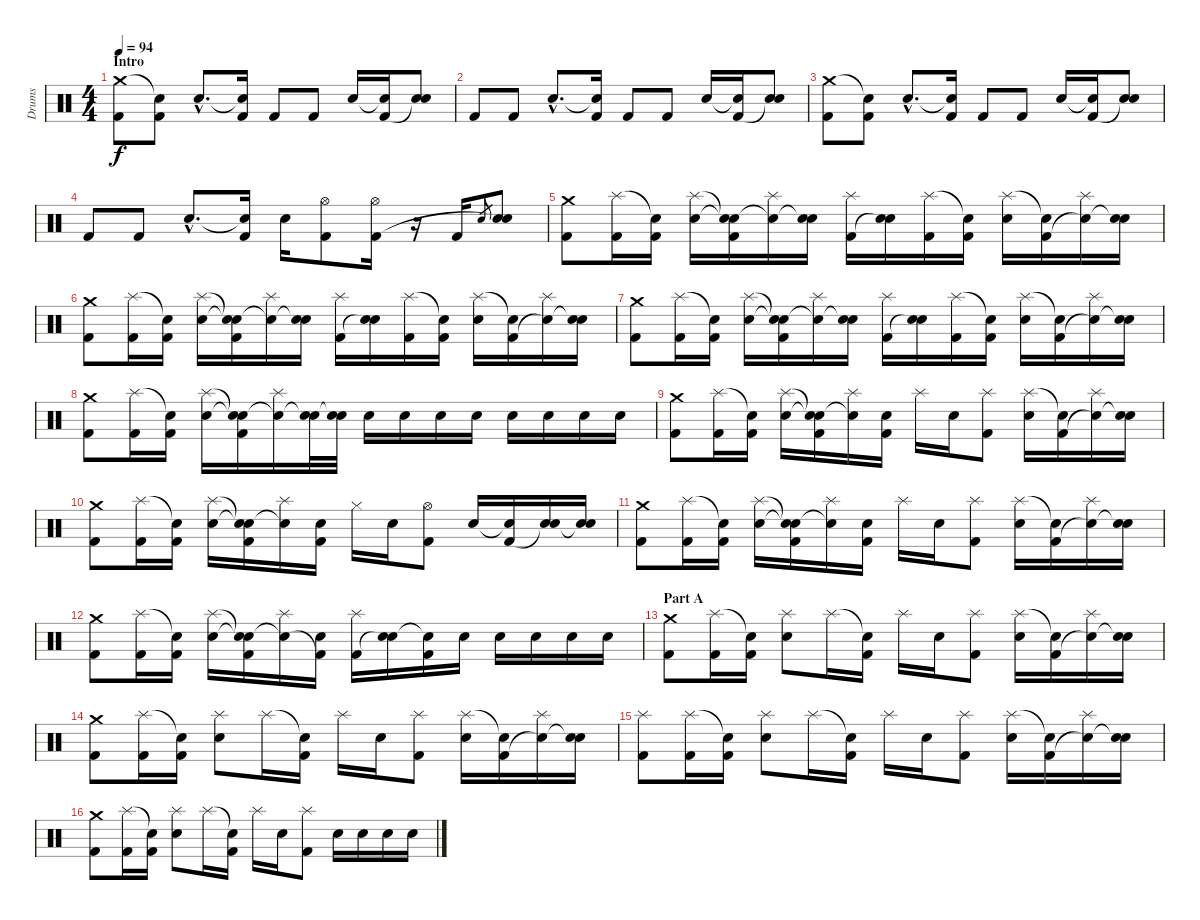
\track ("Drums" "Drums") {instrument percussion}
\staff {score}
\articulation defaults
\ts (4 4)
\section ("" "Intro")
\tempo 94
\clef neutral
\ks c
("Crash medium (hit)" "Kick (hit) 2").8{dy f} ("Snare (hit)"{t} "Kick (hit) 2").8 "Electric Snare (hit)"{hac}.8{d} ("Snare (hit)"{t} "Kick (hit) 2").16 "Kick (hit) 2".8 "Kick (hit) 2".8 "Electric Snare (hit)".16 ("Snare (hit)"{t} "Kick (hit) 2").16 ("Electric Snare (hit)" "Snare (hit)"{t}).8 |
"Kick (hit) 2".8 "Kick (hit) 2".8 "Electric Snare (hit)"{hac}.8{d} ("Snare (hit)"{t} "Kick (hit) 2").16 "Kick (hit) 2".8 "Kick (hit) 2".8 "Electric Snare (hit)".16 ("Snare (hit)"{t} "Kick (hit) 2").16 ("Electric Snare (hit)" "Snare (hit)"{t}).8 |
("Crash medium (hit)" "Kick (hit) 2").8 ("Snare (hit)"{t} "Kick (hit) 2").8 "Electric Snare (hit)"{hac}.8{d} ("Snare (hit)"{t} "Kick (hit) 2").16 "Kick (hit) 2".8 "Kick (hit) 2".8 "Electric Snare (hit)".16 ("Snare (hit)"{t} "Kick (hit) 2").16 ("Electric Snare (hit)" "Snare (hit)"{t}).8 |
"Kick (hit) 2".8 "Kick (hit) 2".8 "Electric Snare (hit)"{hac}.8{d} ("Snare (hit)"{t} "Kick (hit) 2").16 "Electric Snare (hit)".16 ("Hi-Hat (open)" "Kick (hit) 2").8 ("Hi-Hat (open)" "Kick (hit) 2").16 r.16 "Kick (hit) 2".16 "Electric Snare (hit)".8{gr} ("Electric Snare (hit)" "Snare (hit)"{t}).8 |
("Crash medium (hit)" "Kick (hit) 2").8 ("Splash (hit)" "Kick (hit) 2").16 ("Snare (hit)"{t} "Kick (hit) 2").16 ("Splash (hit)" "Electric Snare (hit)").16 ("Snare (hit)"{t} "Snare (hit)"{t} "Kick (hit) 2").16 ("Splash (hit)" "Snare (hit)"{t}).16 ("Electric Snare (hit)" "Snare (hit)"{t}).16 ("Splash (hit)" "Kick (hit) 2").16 ("Electric Snare (hit)" "Snare (hit)"{t}).16 ("Splash (hit)" "Kick (hit) 2").16 ("Snare (hit)"{t} "Kick (hit) 2").16 ("Splash (hit)" "Electric Snare (hit)").16 ("Snare (hit)"{t} "Kick (hit) 2").16 ("Splash (hit)" "Snare (hit)"{t}).16 ("Electric Snare (hit)" "Snare (hit)"{t}).16 |
("Crash medium (hit)" "Kick (hit) 2").8 ("Splash (hit)" "Kick (hit) 2").16 ("Snare (hit)"{t} "Kick (hit) 2").16 ("Splash (hit)" "Electric Snare (hit)").16 ("Snare (hit)"{t} "Snare (hit)"{t} "Kick (hit) 2").16 ("Splash (hit)" "Snare (hit)"{t}).16 ("Electric Snare (hit)" "Snare (hit)"{t}).16 ("Splash (hit)" "Kick (hit) 2").16 ("Electric Snare (hit)" "Snare (hit)"{t}).16 ("Splash (hit)" "Kick (hit) 2").16 ("Snare (hit)"{t} "Kick (hit) 2").16 ("Splash (hit)" "Electric Snare (hit)").16 ("Snare (hit)"{t} "Kick (hit) 2").16 ("Splash (hit)" "Snare (hit)"{t}).16 ("Electric Snare (hit)" "Snare (hit)"{t}).16 |
("Crash medium (hit)" "Kick (hit) 2").8 ("Splash (hit)" "Kick (hit) 2").16 ("Snare (hit)"{t} "Kick (hit) 2").16 ("Splash (hit)" "Electric Snare (hit)").16 ("Snare (hit)"{t} "Snare (hit)"{t} "Kick (hit) 2").16 ("Splash (hit)" "Snare (hit)"{t}).16 ("Electric Snare (hit)" "Snare (hit)"{t}).16 ("Splash (hit)" "Kick (hit) 2").16 ("Electric Snare (hit)" "Snare (hit)"{t}).16 ("Splash (hit)" "Kick (hit) 2").16 ("Snare (hit)"{t} "Kick (hit) 2").16 ("Splash (hit)" "Electric Snare (hit)").16 ("Snare (hit)"{t} "Kick (hit) 2").16 ("Splash (hit)" "Snare (hit)"{t}).16 ("Electric Snare (hit)" "Snare (hit)"{t}).16 |
("Crash medium (hit)" "Kick (hit) 2").8 ("Splash (hit)" "Kick (hit) 2").16 ("Snare (hit)"{t} "Kick (hit) 2").16 ("Splash (hit)" "Electric Snare (hit)").16 ("Snare (hit)"{t} "Snare (hit)"{t} "Kick (hit) 2").16 ("Splash (hit)" "Snare (hit)"{t}).16 ("Electric Snare (hit)" "Snare (hit)"{t}).32 ("Electric Snare (hit)" "Snare (hit)"{t}).32 "Electric Snare (hit)".16 "Electric Snare (hit)".16 "Electric Snare (hit)".16 "Electric Snare (hit)".16 "Electric Snare (hit)".16 "Electric Snare (hit)".16 "Electric Snare (hit)".16 "Electric Snare (hit)".16 |
("Crash medium (hit)" "Kick (hit) 2").8 ("Splash (hit)" "Kick (hit) 2").16 ("Snare (hit)"{t} "Kick (hit) 2").16 ("Splash (hit)" "Electric Snare (hit)").16 ("Snare (hit)"{t} "Snare (hit)"{t} "Kick (hit) 2").16 ("Splash (hit)" "Snare (hit)"{t}).16 ("Electric Snare (hit)" "Kick (hit) 2").16 "Splash (hit)".16 "Electric Snare (hit)".16 ("Splash (hit)" "Kick (hit) 2").8 ("Splash (hit)" "Electric Snare (hit)").16 ("Snare (hit)"{t} "Kick (hit) 2").16 ("Splash (hit)" "Snare (hit)"{t}).16 ("Electric Snare (hit)" "Snare (hit)"{t}).16 |
("Crash medium (hit)" "Kick (hit) 2").8 ("Splash (hit)" "Kick (hit) 2").16 ("Snare (hit)"{t} "Kick (hit) 2").16 ("Splash (hit)" "Electric Snare (hit)").16 ("Snare (hit)"{t} "Snare (hit)"{t} "Kick (hit) 2").16 ("Splash (hit)" "Snare (hit)"{t}).16 ("Electric Snare (hit)" "Kick (hit) 2").16 "Hi-Hat (closed)".16 "Electric Snare (hit)".16 ("Hi-Hat (open)" "Kick (hit) 2").8 "Electric Snare (hit)".16 ("Snare (hit)"{t} "Kick (hit) 2").16 ("Electric Snare (hit)" "Snare (hit)"{t}).16 ("Electric Snare (hit)" "Snare (hit)"{t}).16 |
("Crash medium (hit)" "Kick (hit) 2").8 ("Splash (hit)" "Kick (hit) 2").16 ("Snare (hit)"{t} "Kick (hit) 2").16 ("Splash (hit)" "Electric Snare (hit)").16 ("Snare (hit)"{t} "Snare (hit)"{t} "Kick (hit) 2").16 ("Splash (hit)" "Snare (hit)"{t}).16 ("Electric Snare (hit)" "Kick (hit) 2").16 "Splash (hit)".16 "Electric Snare (hit)".16 ("Splash (hit)" "Kick (hit) 2").8 ("Splash (hit)" "Electric Snare (hit)").16 ("Snare (hit)"{t} "Kick (hit) 2").16 ("Splash (hit)" "Snare (hit)"{t}).16 ("Electric Snare (hit)" "Snare (hit)"{t}).16 |
("Crash medium (hit)" "Kick (hit) 2").8 ("Splash (hit)" "Kick (hit) 2").16 ("Snare (hit)"{t} "Kick (hit) 2").16 ("Splash (hit)" "Electric Snare (hit)").16 ("Snare (hit)"{t} "Snare (hit)"{t} "Kick (hit) 2").16 ("Splash (hit)" "Snare (hit)"{t}).16 ("Electric Snare (hit)" "Kick (hit) 2"{t}).16 ("Splash (hit)" "Kick (hit) 2").16 ("Electric Snare (hit)" "Snare (hit)"{t}).16 ("Snare (hit)"{t} "Kick (hit) 2").16 "Electric Snare (hit)".16 "Electric Snare (hit)".16 "Electric Snare (hit)".16 "Electric Snare (hit)".16 "Electric Snare (hit)".16 |
\section ("" "Part A")
("Crash medium (hit)" "Kick (hit) 2").8 ("Splash (hit)" "Kick (hit) 2").16 ("Snare (hit)"{t} "Kick (hit) 2").16 ("Splash (hit)" "Electric Snare (hit)").8 "Splash (hit)".16 ("Snare (hit)"{t} "Kick (hit) 2").16 "Splash (hit)".16 "Electric Snare (hit)".16 ("Splash (hit)" "Kick (hit) 2").8 ("Splash (hit)" "Electric Snare (hit)").16 ("Snare (hit)"{t} "Kick (hit) 2").16 ("Splash (hit)" "Snare (hit)"{t}).16 ("Electric Snare (hit)" "Snare (hit)"{t}).16 |
("Crash medium (hit)" "Kick (hit) 2").8 ("Splash (hit)" "Kick (hit) 2").16 ("Snare (hit)"{t} "Kick (hit) 2").16 ("Splash (hit)" "Electric Snare (hit)").8 "Splash (hit)".16 ("Snare (hit)"{t} "Kick (hit) 2").16 "Splash (hit)".16 "Electric Snare (hit)".16 ("Splash (hit)" "Kick (hit) 2").8 ("Splash (hit)" "Electric Snare (hit)").16 ("Snare (hit)"{t} "Kick (hit) 2").16 ("Splash (hit)" "Snare (hit)"{t}).16 ("Electric Snare (hit)" "Snare (hit)"{t}).16 |
("Splash (hit)" "Kick (hit) 2").8 ("Splash (hit)" "Kick (hit) 2").16 ("Snare (hit)"{t} "Kick (hit) 2").16 ("Splash (hit)" "Electric Snare (hit)").8 "Splash (hit)".16 ("Snare (hit)"{t} "Kick (hit) 2").16 "Splash (hit)".16 "Electric Snare (hit)".16 ("Splash (hit)" "Kick (hit) 2").8 ("Splash (hit)" "Electric Snare (hit)").16 ("Snare (hit)"{t} "Kick (hit) 2").16 ("Splash (hit)" "Snare (hit)"{t}).16 ("Electric Snare (hit)" "Snare (hit)"{t}).16 |
("Crash medium (hit)" "Kick (hit) 2").8 ("Splash (hit)" "Kick (hit) 2").16 ("Snare (hit)"{t} "Kick (hit) 2").16 ("Splash (hit)" "Electric Snare (hit)").8 "Splash (hit)".16 ("Snare (hit)"{t} "Kick (hit) 2").16 "Splash (hit)".16 "Electric Snare (hit)".16 ("Splash (hit)" "Kick (hit) 2").8 "Electric Snare (hit)".16 "Electric Snare (hit)".16 "Electric Snare (hit)".16 "Electric Snare (hit)".16
